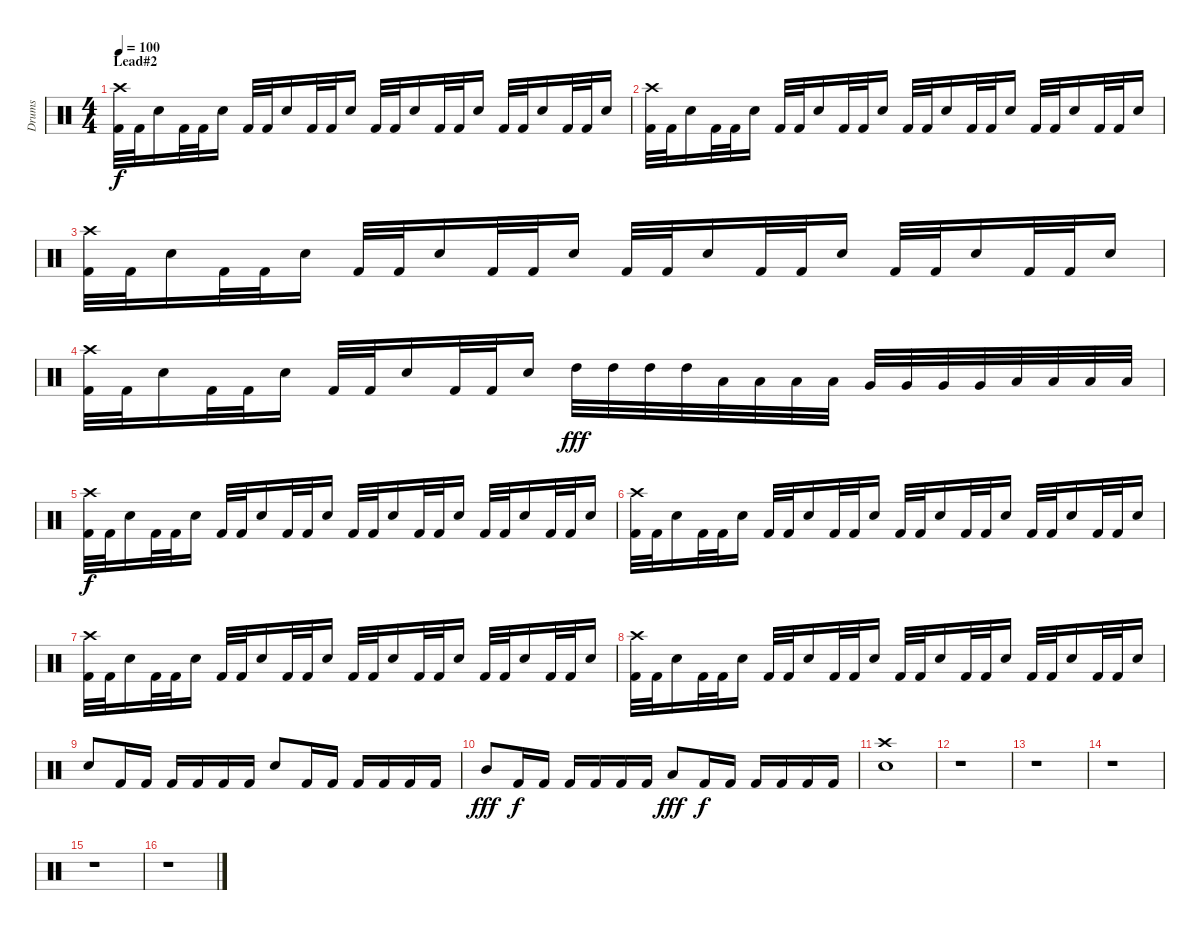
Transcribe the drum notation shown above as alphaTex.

\track ("Drums" "Drums") {instrument percussion}
\staff {score}
\articulation defaults
\ts (4 4)
\section ("" "Lead#2")
\tempo 100
\clef neutral
\ks c
("Crash high (hit)" "Kick (hit) 2").32{dy f} "Kick (hit) 2".32 "Snare (hit) 2".16 "Kick (hit) 2".32 "Kick (hit) 2".32 "Snare (hit) 2".16 "Kick (hit) 2".32 "Kick (hit) 2".32 "Snare (hit) 2".16 "Kick (hit) 2".32 "Kick (hit) 2".32 "Snare (hit) 2".16 "Kick (hit) 2".32 "Kick (hit) 2".32 "Snare (hit) 2".16 "Kick (hit) 2".32 "Kick (hit) 2".32 "Snare (hit) 2".16 "Kick (hit) 2".32 "Kick (hit) 2".32 "Snare (hit) 2".16 "Kick (hit) 2".32 "Kick (hit) 2".32 "Snare (hit) 2".16 |
("Crash high (hit)" "Kick (hit) 2").32 "Kick (hit) 2".32 "Snare (hit) 2".16 "Kick (hit) 2".32 "Kick (hit) 2".32 "Snare (hit) 2".16 "Kick (hit) 2".32 "Kick (hit) 2".32 "Snare (hit) 2".16 "Kick (hit) 2".32 "Kick (hit) 2".32 "Snare (hit) 2".16 "Kick (hit) 2".32 "Kick (hit) 2".32 "Snare (hit) 2".16 "Kick (hit) 2".32 "Kick (hit) 2".32 "Snare (hit) 2".16 "Kick (hit) 2".32 "Kick (hit) 2".32 "Snare (hit) 2".16 "Kick (hit) 2".32 "Kick (hit) 2".32 "Snare (hit) 2".16 |
("Crash high (hit)" "Kick (hit) 2").32 "Kick (hit) 2".32 "Snare (hit) 2".16 "Kick (hit) 2".32 "Kick (hit) 2".32 "Snare (hit) 2".16 "Kick (hit) 2".32 "Kick (hit) 2".32 "Snare (hit) 2".16 "Kick (hit) 2".32 "Kick (hit) 2".32 "Snare (hit) 2".16 "Kick (hit) 2".32 "Kick (hit) 2".32 "Snare (hit) 2".16 "Kick (hit) 2".32 "Kick (hit) 2".32 "Snare (hit) 2".16 "Kick (hit) 2".32 "Kick (hit) 2".32 "Snare (hit) 2".16 "Kick (hit) 2".32 "Kick (hit) 2".32 "Snare (hit) 2".16 |
("Crash high (hit)" "Kick (hit) 2").32 "Kick (hit) 2".32 "Snare (hit) 2".16 "Kick (hit) 2".32 "Kick (hit) 2".32 "Snare (hit) 2".16 "Kick (hit) 2".32 "Kick (hit) 2".32 "Snare (hit) 2".16 "Kick (hit) 2".32 "Kick (hit) 2".32 "Snare (hit) 2".16 "High Tom (hit)".32{dy fff} "High Tom (hit)".32 "High Tom (hit)".32 "High Tom (hit)".32 "Low Tom (hit)".32 "Low Tom (hit)".32 "Low Tom (hit)".32 "Low Tom (hit)".32 "Very Low Tom (hit)".32 "Very Low Tom (hit)".32 "Very Low Tom (hit)".32 "Very Low Tom (hit)".32 "Low Floor Tom (hit)".32 "Low Floor Tom (hit)".32 "Low Floor Tom (hit)".32 "Low Floor Tom (hit)".32 |
("Crash high (hit)" "Kick (hit) 2").32{dy f} "Kick (hit) 2".32 "Snare (hit) 2".16 "Kick (hit) 2".32 "Kick (hit) 2".32 "Snare (hit) 2".16 "Kick (hit) 2".32 "Kick (hit) 2".32 "Snare (hit) 2".16 "Kick (hit) 2".32 "Kick (hit) 2".32 "Snare (hit) 2".16 "Kick (hit) 2".32 "Kick (hit) 2".32 "Snare (hit) 2".16 "Kick (hit) 2".32 "Kick (hit) 2".32 "Snare (hit) 2".16 "Kick (hit) 2".32 "Kick (hit) 2".32 "Snare (hit) 2".16 "Kick (hit) 2".32 "Kick (hit) 2".32 "Snare (hit) 2".16 |
("Crash high (hit)" "Kick (hit) 2").32 "Kick (hit) 2".32 "Snare (hit) 2".16 "Kick (hit) 2".32 "Kick (hit) 2".32 "Snare (hit) 2".16 "Kick (hit) 2".32 "Kick (hit) 2".32 "Snare (hit) 2".16 "Kick (hit) 2".32 "Kick (hit) 2".32 "Snare (hit) 2".16 "Kick (hit) 2".32 "Kick (hit) 2".32 "Snare (hit) 2".16 "Kick (hit) 2".32 "Kick (hit) 2".32 "Snare (hit) 2".16 "Kick (hit) 2".32 "Kick (hit) 2".32 "Snare (hit) 2".16 "Kick (hit) 2".32 "Kick (hit) 2".32 "Snare (hit) 2".16 |
("Crash high (hit)" "Kick (hit) 2").32 "Kick (hit) 2".32 "Snare (hit) 2".16 "Kick (hit) 2".32 "Kick (hit) 2".32 "Snare (hit) 2".16 "Kick (hit) 2".32 "Kick (hit) 2".32 "Snare (hit) 2".16 "Kick (hit) 2".32 "Kick (hit) 2".32 "Snare (hit) 2".16 "Kick (hit) 2".32 "Kick (hit) 2".32 "Snare (hit) 2".16 "Kick (hit) 2".32 "Kick (hit) 2".32 "Snare (hit) 2".16 "Kick (hit) 2".32 "Kick (hit) 2".32 "Snare (hit) 2".16 "Kick (hit) 2".32 "Kick (hit) 2".32 "Snare (hit) 2".16 |
("Crash high (hit)" "Kick (hit) 2").32 "Kick (hit) 2".32 "Snare (hit) 2".16 "Kick (hit) 2".32 "Kick (hit) 2".32 "Snare (hit) 2".16 "Kick (hit) 2".32 "Kick (hit) 2".32 "Snare (hit) 2".16 "Kick (hit) 2".32 "Kick (hit) 2".32 "Snare (hit) 2".16 "Kick (hit) 2".32 "Kick (hit) 2".32 "Snare (hit) 2".16 "Kick (hit) 2".32 "Kick (hit) 2".32 "Snare (hit) 2".16 "Kick (hit) 2".32 "Kick (hit) 2".32 "Snare (hit) 2".16 "Kick (hit) 2".32 "Kick (hit) 2".32 "Snare (hit) 2".16 |
"Snare (hit) 2".8 "Kick (hit) 2".16 "Kick (hit) 2".16 "Kick (hit) 2".16 "Kick (hit) 2".16 "Kick (hit) 2".16 "Kick (hit) 2".16 "Snare (hit) 2".8 "Kick (hit) 2".16 "Kick (hit) 2".16 "Kick (hit) 2".16 "Kick (hit) 2".16 "Kick (hit) 2".16 "Kick (hit) 2".16 |
"Mid Tom (hit)".8{dy fff} "Kick (hit) 2".16{dy f} "Kick (hit) 2".16 "Kick (hit) 2".16 "Kick (hit) 2".16 "Kick (hit) 2".16 "Kick (hit) 2".16 "Low Tom (hit)".8{dy fff} "Kick (hit) 2".16{dy f} "Kick (hit) 2".16 "Kick (hit) 2".16 "Kick (hit) 2".16 "Kick (hit) 2".16 "Kick (hit) 2".16 |
("Crash high (hit)" "Snare (hit) 2").1 |
r.1 |
r.1 |
r.1 |
r.1 |
r.1
